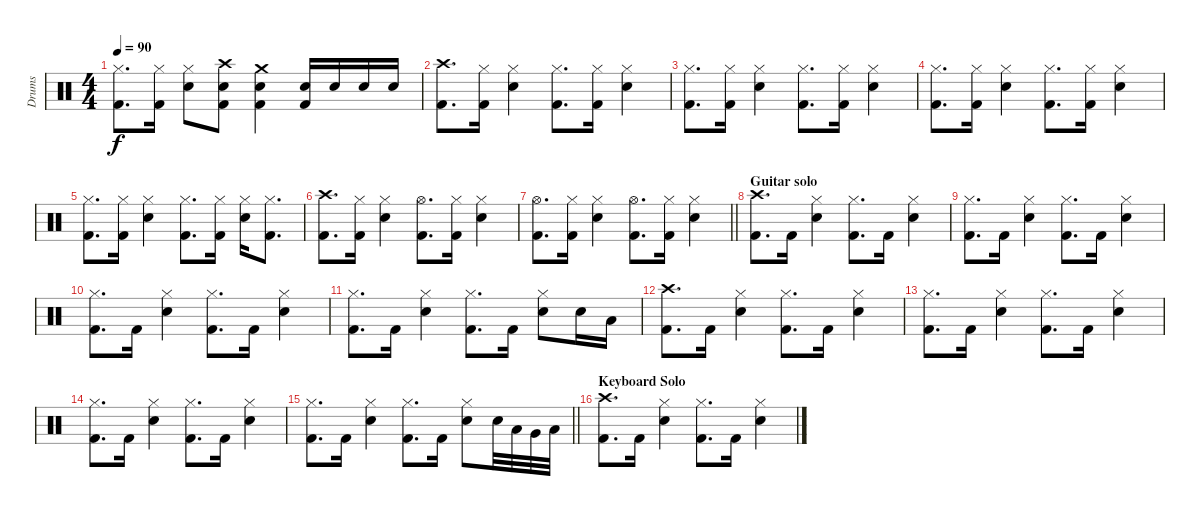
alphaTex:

\track ("Drums" "Drums") {instrument percussion}
\staff {score}
\articulation defaults
\ts (4 4)
\tempo 90
\clef neutral
\ks c
("Hi-Hat (closed)" "Kick (hit) 2").8{d dy f} ("Hi-Hat (closed)" "Kick (hit) 2").16 ("Hi-Hat (closed)" "Snare (hit) 2").8 ("Crash high (hit)" "Snare (hit) 2" "Kick (hit) 2").8 ("Crash medium (hit)" "Snare (hit) 2" "Kick (hit) 2").4 ("Snare (hit) 2" "Kick (hit) 2").16 "Snare (hit) 2".16 "Snare (hit) 2".16 "Snare (hit) 2".16 |
("Crash high (hit)" "Kick (hit) 2").8{d} ("Hi-Hat (closed)" "Kick (hit) 2").16 ("Hi-Hat (closed)" "Snare (hit) 2").4 ("Hi-Hat (closed)" "Kick (hit) 2").8{d} ("Hi-Hat (closed)" "Kick (hit) 2").16 ("Hi-Hat (closed)" "Snare (hit) 2").4 |
("Hi-Hat (closed)" "Kick (hit) 2").8{d} ("Hi-Hat (closed)" "Kick (hit) 2").16 ("Hi-Hat (closed)" "Snare (hit) 2").4 ("Hi-Hat (closed)" "Kick (hit) 2").8{d} ("Hi-Hat (closed)" "Kick (hit) 2").16 ("Hi-Hat (closed)" "Snare (hit) 2").4 |
("Hi-Hat (closed)" "Kick (hit) 2").8{d} ("Hi-Hat (closed)" "Kick (hit) 2").16 ("Hi-Hat (closed)" "Snare (hit) 2").4 ("Hi-Hat (closed)" "Kick (hit) 2").8{d} ("Hi-Hat (closed)" "Kick (hit) 2").16 ("Hi-Hat (closed)" "Snare (hit) 2").4 |
("Hi-Hat (closed)" "Kick (hit) 2").8{d} ("Hi-Hat (closed)" "Kick (hit) 2").16 ("Hi-Hat (closed)" "Snare (hit) 2").4 ("Hi-Hat (closed)" "Kick (hit) 2").8{d} ("Hi-Hat (closed)" "Kick (hit) 2").16 ("Hi-Hat (closed)" "Snare (hit) 2").16 ("Hi-Hat (closed)" "Kick (hit) 2").8{d} |
("Crash high (hit)" "Kick (hit) 2").8{d} ("Hi-Hat (closed)" "Kick (hit) 2").16 ("Hi-Hat (closed)" "Snare (hit) 2").4 ("Hi-Hat (open)" "Kick (hit) 2").8{d} ("Hi-Hat (closed)" "Kick (hit) 2").16 ("Hi-Hat (closed)" "Snare (hit) 2").4 |
\barLineRight lightlight
("Hi-Hat (open)" "Kick (hit) 2").8{d} ("Hi-Hat (closed)" "Kick (hit) 2").16 ("Hi-Hat (closed)" "Snare (hit) 2").4 ("Hi-Hat (open)" "Kick (hit) 2").8{d} ("Hi-Hat (closed)" "Kick (hit) 2").16 ("Hi-Hat (closed)" "Snare (hit) 2").4 |
\section ("" "Guitar solo")
("Crash high (hit)" "Kick (hit) 2").8{d} "Kick (hit) 2".16 ("Hi-Hat (closed)" "Snare (hit) 2").4 ("Hi-Hat (closed)" "Kick (hit) 2").8{d} "Kick (hit) 2".16 ("Hi-Hat (closed)" "Snare (hit) 2").4 |
("Hi-Hat (closed)" "Kick (hit) 2").8{d} "Kick (hit) 2".16 ("Hi-Hat (closed)" "Snare (hit) 2").4 ("Hi-Hat (closed)" "Kick (hit) 2").8{d} "Kick (hit) 2".16 ("Hi-Hat (closed)" "Snare (hit) 2").4 |
("Hi-Hat (closed)" "Kick (hit) 2").8{d} "Kick (hit) 2".16 ("Hi-Hat (closed)" "Snare (hit) 2").4 ("Hi-Hat (closed)" "Kick (hit) 2").8{d} "Kick (hit) 2".16 ("Hi-Hat (closed)" "Snare (hit) 2").4 |
("Hi-Hat (closed)" "Kick (hit) 2").8{d} "Kick (hit) 2".16 ("Hi-Hat (closed)" "Snare (hit) 2").4 ("Hi-Hat (closed)" "Kick (hit) 2").8{d} "Kick (hit) 2".16 ("Hi-Hat (closed)" "Snare (hit) 2").8 "Snare (hit) 2".16 "Low Tom (hit)".16 |
("Crash high (hit)" "Kick (hit) 2").8{d} "Kick (hit) 2".16 ("Hi-Hat (closed)" "Snare (hit) 2").4 ("Hi-Hat (closed)" "Kick (hit) 2").8{d} "Kick (hit) 2".16 ("Hi-Hat (closed)" "Snare (hit) 2").4 |
("Hi-Hat (closed)" "Kick (hit) 2").8{d} "Kick (hit) 2".16 ("Hi-Hat (closed)" "Snare (hit) 2").4 ("Hi-Hat (closed)" "Kick (hit) 2").8{d} "Kick (hit) 2".16 ("Hi-Hat (closed)" "Snare (hit) 2").4 |
("Hi-Hat (closed)" "Kick (hit) 2").8{d} "Kick (hit) 2".16 ("Hi-Hat (closed)" "Snare (hit) 2").4 ("Hi-Hat (closed)" "Kick (hit) 2").8{d} "Kick (hit) 2".16 ("Hi-Hat (closed)" "Snare (hit) 2").4 |
\barLineRight lightlight
("Hi-Hat (closed)" "Kick (hit) 2").8{d} "Kick (hit) 2".16 ("Hi-Hat (closed)" "Snare (hit) 2").4 ("Hi-Hat (closed)" "Kick (hit) 2").8{d} "Kick (hit) 2".16 ("Hi-Hat (closed)" "Snare (hit) 2").8 "Snare (hit) 2".32 "Low Tom (hit)".32 "Very Low Tom (hit)".32 "Low Floor Tom (hit)".32 |
\section ("" "Keyboard Solo")
("Crash high (hit)" "Kick (hit) 2").8{d} "Kick (hit) 2".16 ("Hi-Hat (closed)" "Snare (hit) 2").4 ("Hi-Hat (closed)" "Kick (hit) 2").8{d} "Kick (hit) 2".16 ("Hi-Hat (closed)" "Snare (hit) 2").4
